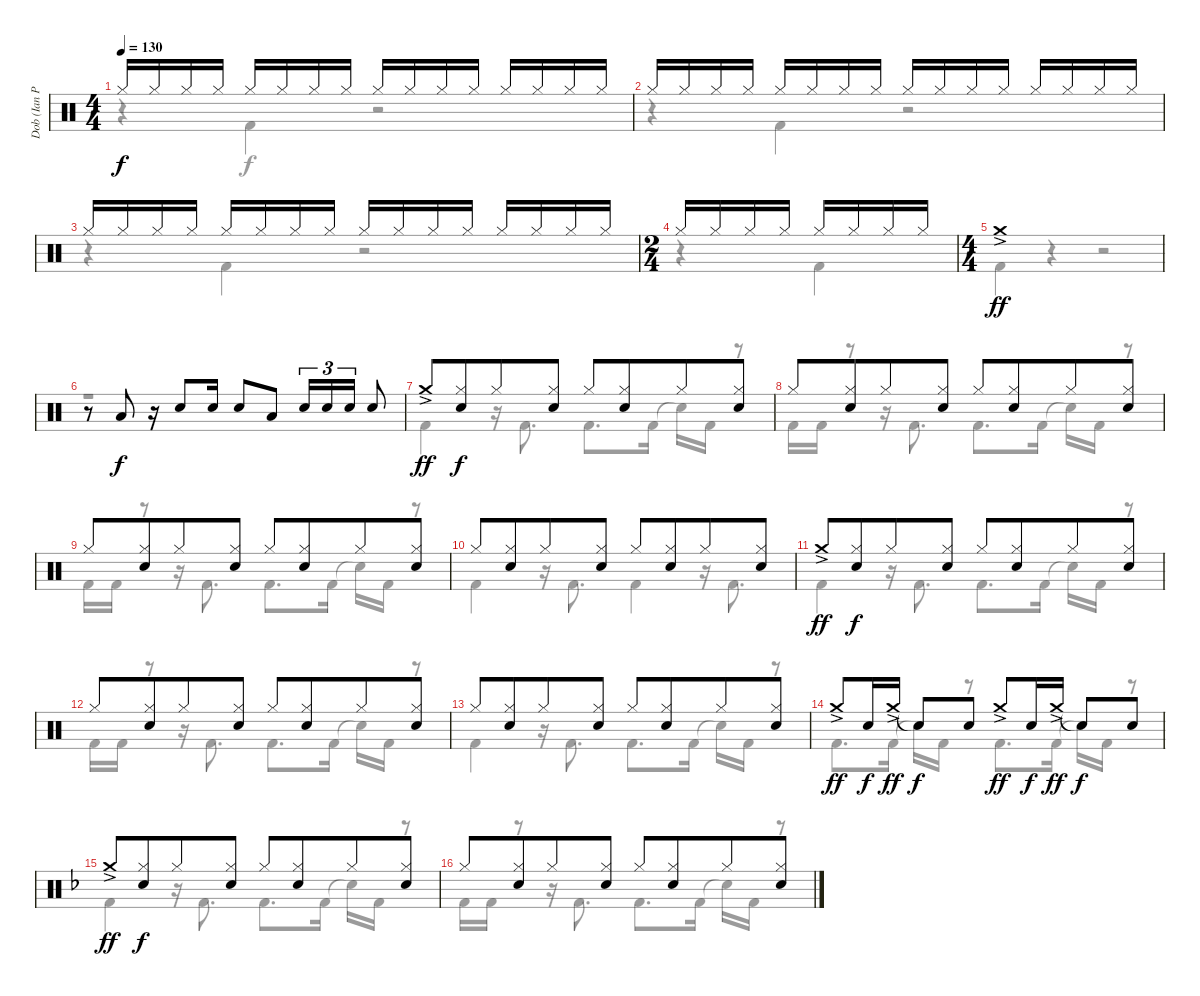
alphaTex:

\track ("Dob (Ian Paice)" "Dob (Ian P") {instrument percussion}
\staff {score}
\articulation defaults
\voice
\ts (4 4)
\tempo 130
\clef neutral
\ks c "Hi-Hat (closed)".16{dy f} "Hi-Hat (closed)".16 "Hi-Hat (closed)".16 "Hi-Hat (closed)".16 "Hi-Hat (closed)".16 "Hi-Hat (closed)".16 "Hi-Hat (closed)".16 "Hi-Hat (closed)".16 "Hi-Hat (closed)".16 "Hi-Hat (closed)".16 "Hi-Hat (closed)".16 "Hi-Hat (closed)".16 "Hi-Hat (closed)".16 "Hi-Hat (closed)".16 "Hi-Hat (closed)".16 "Hi-Hat (closed)".16
|
"Hi-Hat (closed)".16 "Hi-Hat (closed)".16 "Hi-Hat (closed)".16 "Hi-Hat (closed)".16 "Hi-Hat (closed)".16 "Hi-Hat (closed)".16 "Hi-Hat (closed)".16 "Hi-Hat (closed)".16 "Hi-Hat (closed)".16 "Hi-Hat (closed)".16 "Hi-Hat (closed)".16 "Hi-Hat (closed)".16 "Hi-Hat (closed)".16 "Hi-Hat (closed)".16 "Hi-Hat (closed)".16 "Hi-Hat (closed)".16 |
"Hi-Hat (closed)".16 "Hi-Hat (closed)".16 "Hi-Hat (closed)".16 "Hi-Hat (closed)".16 "Hi-Hat (closed)".16 "Hi-Hat (closed)".16 "Hi-Hat (closed)".16 "Hi-Hat (closed)".16 "Hi-Hat (closed)".16 "Hi-Hat (closed)".16 "Hi-Hat (closed)".16 "Hi-Hat (closed)".16 "Hi-Hat (closed)".16 "Hi-Hat (closed)".16 "Hi-Hat (closed)".16 "Hi-Hat (closed)".16 |
\ts (2 4)
"Hi-Hat (closed)".16 "Hi-Hat (closed)".16 "Hi-Hat (closed)".16 "Hi-Hat (closed)".16 "Hi-Hat (closed)".16 "Hi-Hat (closed)".16 "Hi-Hat (closed)".16 "Hi-Hat (closed)".16 |
\ts (4 4)
"Crash medium (hit)"{ac}.1{dy ff} |
r.8 "Low Tom (hit)".8{dy f} r.16 "Electric Snare (hit)".8 "Electric Snare (hit)".16 "Electric Snare (hit)".8 "Low Tom (hit)".8 "Electric Snare (hit)".16{tu (3 2)} "Electric Snare (hit)".16{tu (3 2)} "Electric Snare (hit)".16{tu (3 2)} "Electric Snare (hit)".8 |
"Crash medium (hit)"{ac}.8{dy ff} ("Hi-Hat (closed)" "Electric Snare (hit)").8{dy f beam merge} "Hi-Hat (closed)".8 ("Hi-Hat (closed)" "Electric Snare (hit)").8 "Hi-Hat (closed)".8 ("Hi-Hat (closed)" "Electric Snare (hit)").8{beam merge} "Hi-Hat (closed)".8 ("Hi-Hat (closed)" "Electric Snare (hit)").8 |
"Hi-Hat (closed)".8 ("Hi-Hat (closed)" "Electric Snare (hit)").8{beam merge} "Hi-Hat (closed)".8 ("Hi-Hat (closed)" "Electric Snare (hit)").8 "Hi-Hat (closed)".8 ("Hi-Hat (closed)" "Electric Snare (hit)").8{beam merge} "Hi-Hat (closed)".8 ("Hi-Hat (closed)" "Electric Snare (hit)").8 |
"Hi-Hat (closed)".8 ("Hi-Hat (closed)" "Electric Snare (hit)").8{beam merge} "Hi-Hat (closed)".8 ("Hi-Hat (closed)" "Electric Snare (hit)").8 "Hi-Hat (closed)".8 ("Hi-Hat (closed)" "Electric Snare (hit)").8{beam merge} "Hi-Hat (closed)".8 ("Hi-Hat (closed)" "Electric Snare (hit)").8 |
"Hi-Hat (closed)".8 ("Hi-Hat (closed)" "Electric Snare (hit)").8{beam merge} "Hi-Hat (closed)".8 ("Hi-Hat (closed)" "Electric Snare (hit)").8 "Hi-Hat (closed)".8 ("Hi-Hat (closed)" "Electric Snare (hit)").8{beam merge} "Hi-Hat (closed)".8 ("Hi-Hat (closed)" "Electric Snare (hit)").8 |
"Crash medium (hit)"{ac}.8{dy ff} ("Hi-Hat (closed)" "Electric Snare (hit)").8{dy f beam merge} "Hi-Hat (closed)".8 ("Hi-Hat (closed)" "Electric Snare (hit)").8 "Hi-Hat (closed)".8 ("Hi-Hat (closed)" "Electric Snare (hit)").8{beam merge} "Hi-Hat (closed)".8 ("Hi-Hat (closed)" "Electric Snare (hit)").8 |
"Hi-Hat (closed)".8 ("Hi-Hat (closed)" "Electric Snare (hit)").8{beam merge} "Hi-Hat (closed)".8 ("Hi-Hat (closed)" "Electric Snare (hit)").8 "Hi-Hat (closed)".8 ("Hi-Hat (closed)" "Electric Snare (hit)").8{beam merge} "Hi-Hat (closed)".8 ("Hi-Hat (closed)" "Electric Snare (hit)").8 |
"Hi-Hat (closed)".8 ("Hi-Hat (closed)" "Electric Snare (hit)").8{beam merge} "Hi-Hat (closed)".8 ("Hi-Hat (closed)" "Electric Snare (hit)").8 "Hi-Hat (closed)".8 ("Hi-Hat (closed)" "Electric Snare (hit)").8{beam merge} "Hi-Hat (closed)".8 ("Hi-Hat (closed)" "Electric Snare (hit)").8 |
"Crash medium (hit)"{ac}.8{dy ff} "Electric Snare (hit)".16{dy f} "Crash medium (hit)"{ac}.16{dy ff} "Snare (hit)"{t}.8{dy f} "Electric Snare (hit)".8 "Crash medium (hit)"{ac}.8{dy ff} "Electric Snare (hit)".16{dy f} "Crash medium (hit)"{ac}.16{dy ff} "Snare (hit)"{t}.8{dy f} "Electric Snare (hit)".8 |
\ks f "Crash medium (hit)"{ac}.8{dy ff}
("Hi-Hat (closed)" "Electric Snare (hit)").8{dy f beam merge} "Hi-Hat (closed)".8 ("Hi-Hat (closed)" "Electric Snare (hit)").8 "Hi-Hat (closed)".8 ("Hi-Hat (closed)" "Electric Snare (hit)").8{beam merge} "Hi-Hat (closed)".8 ("Hi-Hat (closed)" "Electric Snare (hit)").8 |
"Hi-Hat (closed)".8 ("Hi-Hat (closed)" "Electric Snare (hit)").8{beam merge} "Hi-Hat (closed)".8 ("Hi-Hat (closed)" "Electric Snare (hit)").8 "Hi-Hat (closed)".8 ("Hi-Hat (closed)" "Electric Snare (hit)").8{beam merge} "Hi-Hat (closed)".8 ("Hi-Hat (closed)" "Electric Snare (hit)").8
\voice
\clef neutral
\ottava regular
\simile none
\ks c
r.4{dy f} "Kick (hit) 2".4 r.2 |
r.4 "Kick (hit) 2".4 r.2 |
r.4 "Kick (hit) 2".4 r.2 |
r.4 "Kick (hit) 2".4 |
"Kick (hit) 2".4 r.4 r.2 |
r.1 |
"Kick (hit) 2".4 r.16 "Kick (hit) 2".8{d} "Kick (hit) 2".8{d} "Kick (hit) 2".16 "Snare (hit)"{t}.16 "Kick (hit) 2".16 r.8 |
"Kick (hit) 2".16 "Kick (hit) 2".16 r.8 r.16 "Kick (hit) 2".8{d} "Kick (hit) 2".8{d} "Kick (hit) 2".16 "Snare (hit)"{t}.16 "Kick (hit) 2".16 r.8 |
"Kick (hit) 2".16 "Kick (hit) 2".16 r.8 r.16 "Kick (hit) 2".8{d} "Kick (hit) 2".8{d} "Kick (hit) 2".16 "Snare (hit)"{t}.16 "Kick (hit) 2".16 r.8 |
"Kick (hit) 2".4 r.16 "Kick (hit) 2".8{d} "Kick (hit) 2".4 r.16 "Kick (hit) 2".8{d} |
"Kick (hit) 2".4 r.16 "Kick (hit) 2".8{d} "Kick (hit) 2".8{d} "Kick (hit) 2".16 "Snare (hit)"{t}.16 "Kick (hit) 2".16 r.8 |
"Kick (hit) 2".16 "Kick (hit) 2".16 r.8 r.16 "Kick (hit) 2".8{d} "Kick (hit) 2".8{d} "Kick (hit) 2".16 "Snare (hit)"{t}.16 "Kick (hit) 2".16 r.8 |
"Kick (hit) 2".4 r.16 "Kick (hit) 2".8{d} "Kick (hit) 2".8{d} "Kick (hit) 2".16 "Snare (hit)"{t}.16 "Kick (hit) 2".16 r.8 |
"Kick (hit) 2".8{d} "Kick (hit) 2".16 "Snare (hit)"{t}.16 "Kick (hit) 2".16 r.8 "Kick (hit) 2".8{d} "Kick (hit) 2".16 "Snare (hit)"{t}.16 "Kick (hit) 2".16 r.8 |
\ks f "Kick (hit) 2".4
r.16 "Kick (hit) 2".8{d} "Kick (hit) 2".8{d} "Kick (hit) 2".16 "Snare (hit)"{t}.16 "Kick (hit) 2".16 r.8 |
"Kick (hit) 2".16 "Kick (hit) 2".16 r.8 r.16 "Kick (hit) 2".8{d} "Kick (hit) 2".8{d} "Kick (hit) 2".16 "Snare (hit)"{t}.16 "Kick (hit) 2".16 r.8
